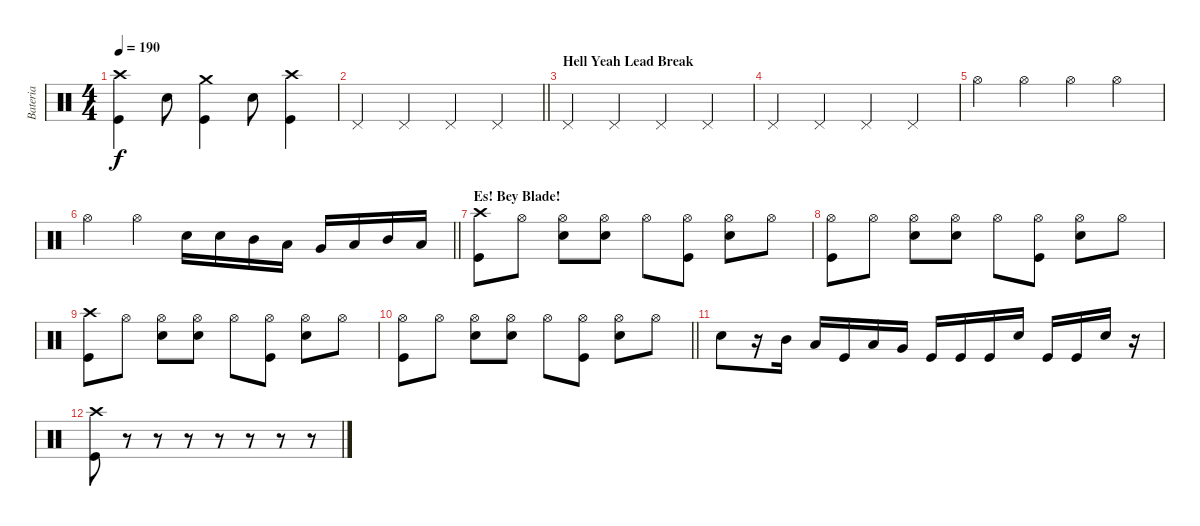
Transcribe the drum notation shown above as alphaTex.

\track ("Bateria" "Bateria") {instrument percussion}
\staff {score}
\articulation defaults
\ts (4 4)
\tempo 190
\clef neutral
\ks c
("Crash high (hit)" "Kick (hit)").4{dy f} "Snare (hit) 2".8 ("Crash medium (hit)" "Kick (hit)").4 "Snare (hit) 2".8 ("Crash high (hit)" "Kick (hit)").4 |
\barLineRight lightlight "Pedal Hi-Hat (hit)".4 "Pedal Hi-Hat (hit)".4 "Pedal Hi-Hat (hit)".4 "Pedal Hi-Hat (hit)".4
|
\section ("" "Hell Yeah Lead Break")
"Pedal Hi-Hat (hit)".4 "Pedal Hi-Hat (hit)".4 "Pedal Hi-Hat (hit)".4 "Pedal Hi-Hat (hit)".4 |
"Pedal Hi-Hat (hit)".4 "Pedal Hi-Hat (hit)".4 "Pedal Hi-Hat (hit)".4 "Pedal Hi-Hat (hit)".4 |
"Hi-Hat (open)".4 "Hi-Hat (open)".4 "Hi-Hat (open)".4 "Hi-Hat (open)".4 |
\barLineRight lightlight "Hi-Hat (open)".4 "Hi-Hat (open)".4 "Snare (hit) 2".16 "Snare (hit) 2".16 "Mid Tom (hit)".16 "Low Tom (hit)".16 "Very Low Tom (hit)".16 "Low Tom (hit)".16 "Mid Tom (hit)".16 "Low Tom (hit)".16
|
\section ("" "Es! Bey Blade!")
("Crash high (hit)" "Kick (hit)").8 "Hi-Hat (open)".8 ("Hi-Hat (open)" "Snare (hit) 2").8 ("Hi-Hat (open)" "Snare (hit) 2").8 "Hi-Hat (open)".8 ("Hi-Hat (open)" "Kick (hit)").8 ("Hi-Hat (open)" "Snare (hit) 2").8 "Hi-Hat (open)".8 |
("Hi-Hat (open)" "Kick (hit)").8 "Hi-Hat (open)".8 ("Hi-Hat (open)" "Snare (hit) 2").8 ("Hi-Hat (open)" "Snare (hit) 2").8 "Hi-Hat (open)".8 ("Hi-Hat (open)" "Kick (hit)").8 ("Hi-Hat (open)" "Snare (hit) 2").8 "Hi-Hat (open)".8 |
("Crash high (hit)" "Kick (hit)").8 "Hi-Hat (open)".8 ("Hi-Hat (open)" "Snare (hit) 2").8 ("Hi-Hat (open)" "Snare (hit) 2").8 "Hi-Hat (open)".8 ("Hi-Hat (open)" "Kick (hit)").8 ("Hi-Hat (open)" "Snare (hit) 2").8 "Hi-Hat (open)".8 |
\barLineRight lightlight
("Hi-Hat (open)" "Kick (hit)").8 "Hi-Hat (open)".8 ("Hi-Hat (open)" "Snare (hit) 2").8 ("Hi-Hat (open)" "Snare (hit) 2").8 "Hi-Hat (open)".8 ("Hi-Hat (open)" "Kick (hit)").8 ("Hi-Hat (open)" "Snare (hit) 2").8 "Hi-Hat (open)".8 |
"Snare (hit) 2".8 r.16 "Mid Tom (hit)".16 "Low Tom (hit)".16 "Kick (hit)".16 "Low Tom (hit)".16 "Very Low Tom (hit)".16 "Kick (hit)".16 "Kick (hit)".16 "Kick (hit)".16 "Snare (hit) 2".16 "Kick (hit)".16 "Kick (hit)".16 "Snare (hit) 2".16 r.16 |
("Crash high (hit)" "Kick (hit)").8 r.8 r.8 r.8 r.8 r.8 r.8 r.8
